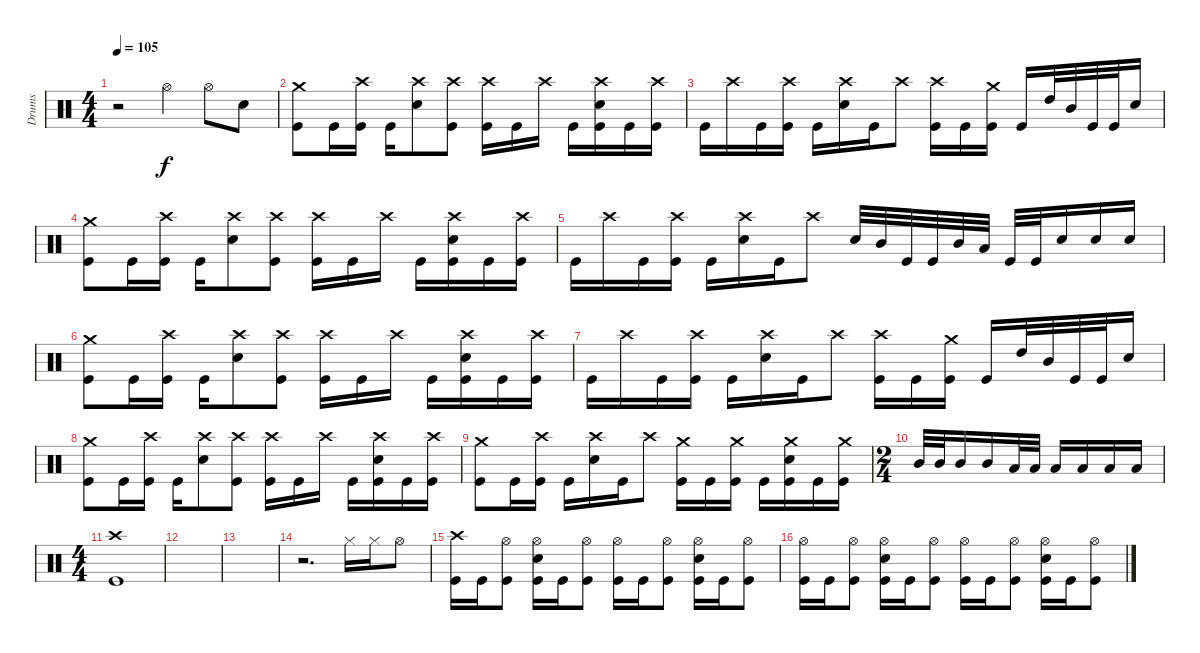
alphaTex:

\track ("Drums" "Drums") {instrument percussion}
\staff {score}
\articulation defaults
\ts (4 4)
\tempo 105
\clef neutral
\ks c
r.2{dy f} "Hi-Hat (open)".4 "Hi-Hat (open)".8 "Electric Snare (hit)".8 |
("Crash medium (hit)" "Kick (hit)").8 "Kick (hit)".16 ("Crash high (hit)" "Kick (hit)").16 "Kick (hit)".16 ("Crash high (hit)" "Electric Snare (hit)").8 ("Crash high (hit)" "Kick (hit)").8 ("Crash high (hit)" "Kick (hit)").16 "Kick (hit)".16 "Crash high (hit)".16 "Kick (hit)".16 ("Crash high (hit)" "Electric Snare (hit)" "Kick (hit)").16 "Kick (hit)".16 ("Crash high (hit)" "Kick (hit)").16 |
"Kick (hit)".16 "Crash high (hit)".16 "Kick (hit)".16 ("Crash high (hit)" "Kick (hit)").16 "Kick (hit)".16 ("Crash high (hit)" "Electric Snare (hit)").16 "Kick (hit)".16 "Crash high (hit)".8 ("Crash high (hit)" "Kick (hit)").16 "Kick (hit)".16 ("Crash medium (hit)" "Kick (hit)").16 "Kick (hit)".16 "High Tom (hit)".32 "Mid Tom (hit)".32 "Kick (hit)".32 "Kick (hit)".32 "Electric Snare (hit)".16 |
("Crash medium (hit)" "Kick (hit)").8 "Kick (hit)".16 ("Crash high (hit)" "Kick (hit)").16 "Kick (hit)".16 ("Crash high (hit)" "Electric Snare (hit)").8 ("Crash high (hit)" "Kick (hit)").8 ("Crash high (hit)" "Kick (hit)").16 "Kick (hit)".16 "Crash high (hit)".16 "Kick (hit)".16 ("Crash high (hit)" "Electric Snare (hit)" "Kick (hit)").16 "Kick (hit)".16 ("Crash high (hit)" "Kick (hit)").16 |
"Kick (hit)".16 "Crash high (hit)".16 "Kick (hit)".16 ("Crash high (hit)" "Kick (hit)").16 "Kick (hit)".16 ("Crash high (hit)" "Electric Snare (hit)").16 "Kick (hit)".16 "Crash high (hit)".8 "Electric Snare (hit)".32 "Mid Tom (hit)".32 "Kick (hit)".32 "Kick (hit)".32 "Mid Tom (hit)".32 "Low Tom (hit)".32 "Kick (hit)".32 "Kick (hit)".32 "Electric Snare (hit)".16 "Electric Snare (hit)".16 "Electric Snare (hit)".16 |
("Crash medium (hit)" "Kick (hit)").8 "Kick (hit)".16 ("Crash high (hit)" "Kick (hit)").16 "Kick (hit)".16 ("Crash high (hit)" "Electric Snare (hit)").8 ("Crash high (hit)" "Kick (hit)").8 ("Crash high (hit)" "Kick (hit)").16 "Kick (hit)".16 "Crash high (hit)".16 "Kick (hit)".16 ("Crash high (hit)" "Electric Snare (hit)" "Kick (hit)").16 "Kick (hit)".16 ("Crash high (hit)" "Kick (hit)").16 |
"Kick (hit)".16 "Crash high (hit)".16 "Kick (hit)".16 ("Crash high (hit)" "Kick (hit)").16 "Kick (hit)".16 ("Crash high (hit)" "Electric Snare (hit)").16 "Kick (hit)".16 "Crash high (hit)".8 ("Crash high (hit)" "Kick (hit)").16 "Kick (hit)".16 ("Crash medium (hit)" "Kick (hit)").16 "Kick (hit)".16 "High Tom (hit)".32 "Mid Tom (hit)".32 "Kick (hit)".32 "Kick (hit)".32 "Electric Snare (hit)".16 |
("Crash medium (hit)" "Kick (hit)").8 "Kick (hit)".16 ("Crash high (hit)" "Kick (hit)").16 "Kick (hit)".16 ("Crash high (hit)" "Electric Snare (hit)").8 ("Crash high (hit)" "Kick (hit)").8 ("Crash high (hit)" "Kick (hit)").16 "Kick (hit)".16 "Crash high (hit)".16 "Kick (hit)".16 ("Crash high (hit)" "Electric Snare (hit)" "Kick (hit)").16 "Kick (hit)".16 ("Crash high (hit)" "Kick (hit)").16 |
("Crash medium (hit)" "Kick (hit)").8 "Kick (hit)".16 ("Crash high (hit)" "Kick (hit)").16 "Kick (hit)".16 ("Crash high (hit)" "Electric Snare (hit)").16 "Kick (hit)".16 "Crash high (hit)".8 ("Crash medium (hit)" "Kick (hit)").16 "Kick (hit)".16 ("Crash medium (hit)" "Kick (hit)").16 "Kick (hit)".16 ("Crash medium (hit)" "Electric Snare (hit)" "Kick (hit)").16 "Kick (hit)".16 ("Crash medium (hit)" "Kick (hit)").16 |
\ts (2 4)
"Mid Tom (hit)".32 "Mid Tom (hit)".32 "Mid Tom (hit)".16 "Mid Tom (hit)".16 "Low Tom (hit)".32 "Low Tom (hit)".32 "Low Tom (hit)".16 "Low Tom (hit)".16 "Low Tom (hit)".16 "Low Tom (hit)".16 |
\ts (4 4)
("Crash high (hit)" "Kick (hit)").1 |
|
|
r.2{d} "Hi-Hat (closed)".16 "Hi-Hat (closed)".16 "Hi-Hat (open)".8 |
("Crash high (hit)" "Kick (hit)").16 "Kick (hit)".16 ("Hi-Hat (open)" "Kick (hit)").8 ("Hi-Hat (open)" "Electric Snare (hit)" "Kick (hit)").16 "Kick (hit)".16 ("Hi-Hat (open)" "Kick (hit)").8 ("Hi-Hat (open)" "Kick (hit)").16 "Kick (hit)".16 ("Hi-Hat (open)" "Kick (hit)").8 ("Hi-Hat (open)" "Electric Snare (hit)" "Kick (hit)").16 "Kick (hit)".16 ("Hi-Hat (open)" "Kick (hit)").8 |
("Hi-Hat (open)" "Kick (hit)").16 "Kick (hit)".16 ("Hi-Hat (open)" "Kick (hit)").8 ("Hi-Hat (open)" "Electric Snare (hit)" "Kick (hit)").16 "Kick (hit)".16 ("Hi-Hat (open)" "Kick (hit)").8 ("Hi-Hat (open)" "Kick (hit)").16 "Kick (hit)".16 ("Hi-Hat (open)" "Kick (hit)").8 ("Hi-Hat (open)" "Electric Snare (hit)" "Kick (hit)").16 "Kick (hit)".16 ("Hi-Hat (open)" "Kick (hit)").8
